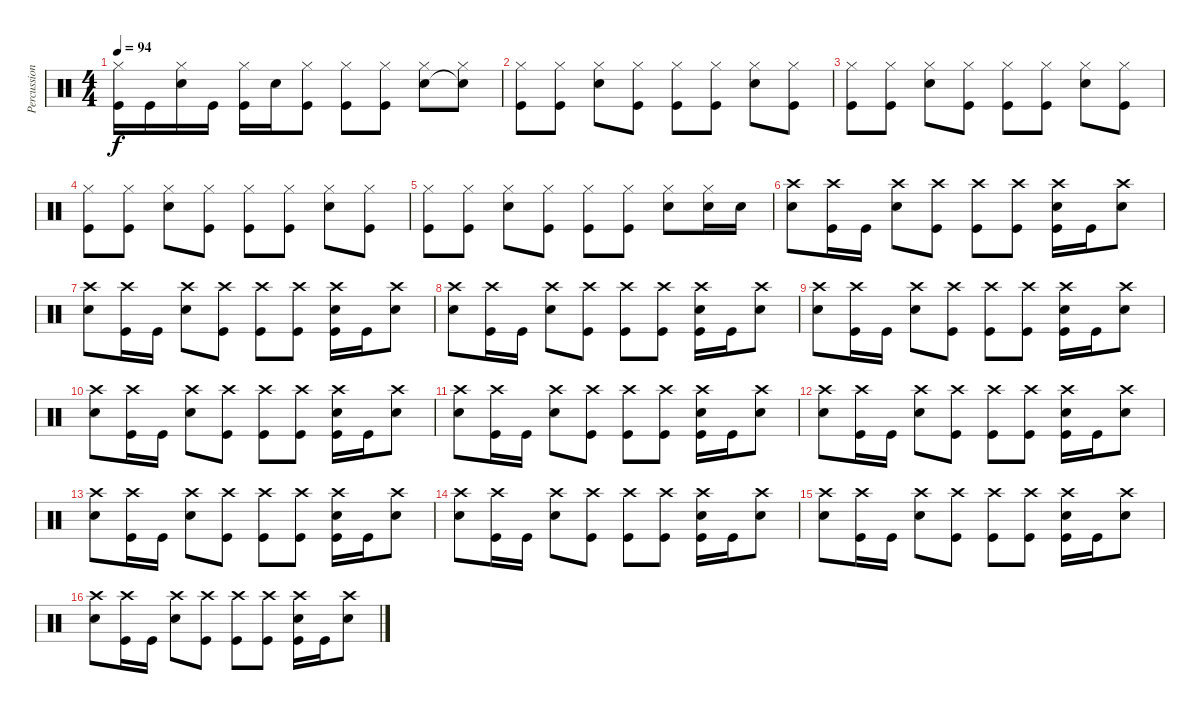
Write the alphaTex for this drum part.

\track ("Percussions" "Percussion") {instrument percussion}
\staff {score}
\articulation defaults
\ts (4 4)
\tempo 94
\clef neutral
\ks c
("Hi-Hat (closed)" "Kick (hit)").16{dy f} "Kick (hit)".16 ("Hi-Hat (closed)" "Electric Snare (hit)").16 "Kick (hit)".16 ("Hi-Hat (closed)" "Kick (hit)").16 "Electric Snare (hit)".16 ("Hi-Hat (closed)" "Kick (hit)").8 ("Hi-Hat (closed)" "Kick (hit)").8 ("Hi-Hat (closed)" "Kick (hit)").8 ("Hi-Hat (closed)" "Electric Snare (hit)").8 ("Hi-Hat (closed)" "Snare (hit)"{t}).8 |
("Hi-Hat (closed)" "Kick (hit)").8 ("Hi-Hat (closed)" "Kick (hit)").8 ("Hi-Hat (closed)" "Electric Snare (hit)").8 ("Hi-Hat (closed)" "Kick (hit)").8 ("Hi-Hat (closed)" "Kick (hit)").8 ("Hi-Hat (closed)" "Kick (hit)").8 ("Hi-Hat (closed)" "Electric Snare (hit)").8 ("Hi-Hat (closed)" "Kick (hit)").8 |
("Hi-Hat (closed)" "Kick (hit)").8 ("Hi-Hat (closed)" "Kick (hit)").8 ("Hi-Hat (closed)" "Electric Snare (hit)").8 ("Hi-Hat (closed)" "Kick (hit)").8 ("Hi-Hat (closed)" "Kick (hit)").8 ("Hi-Hat (closed)" "Kick (hit)").8 ("Hi-Hat (closed)" "Electric Snare (hit)").8 ("Hi-Hat (closed)" "Kick (hit)").8 |
("Hi-Hat (closed)" "Kick (hit)").8 ("Hi-Hat (closed)" "Kick (hit)").8 ("Hi-Hat (closed)" "Electric Snare (hit)").8 ("Hi-Hat (closed)" "Kick (hit)").8 ("Hi-Hat (closed)" "Kick (hit)").8 ("Hi-Hat (closed)" "Kick (hit)").8 ("Hi-Hat (closed)" "Electric Snare (hit)").8 ("Hi-Hat (closed)" "Kick (hit)").8 |
("Hi-Hat (closed)" "Kick (hit)").8 ("Hi-Hat (closed)" "Kick (hit)").8 ("Hi-Hat (closed)" "Electric Snare (hit)").8 ("Hi-Hat (closed)" "Kick (hit)").8 ("Hi-Hat (closed)" "Kick (hit)").8 ("Hi-Hat (closed)" "Kick (hit)").8 ("Hi-Hat (closed)" "Electric Snare (hit)").8 ("Hi-Hat (closed)" "Electric Snare (hit)").16 "Electric Snare (hit)".16 |
("Crash high (hit)" "Electric Snare (hit)").8 ("Crash high (hit)" "Kick (hit)").16 "Kick (hit)".16 ("Crash high (hit)" "Electric Snare (hit)").8 ("Crash high (hit)" "Kick (hit)").8 ("Crash high (hit)" "Kick (hit)").8 ("Crash high (hit)" "Kick (hit)").8 ("Crash high (hit)" "Electric Snare (hit)" "Kick (hit)").16 "Kick (hit)".16 ("Crash high (hit)" "Electric Snare (hit)").8 |
("Crash high (hit)" "Electric Snare (hit)").8 ("Crash high (hit)" "Kick (hit)").16 "Kick (hit)".16 ("Crash high (hit)" "Electric Snare (hit)").8 ("Crash high (hit)" "Kick (hit)").8 ("Crash high (hit)" "Kick (hit)").8 ("Crash high (hit)" "Kick (hit)").8 ("Crash high (hit)" "Electric Snare (hit)" "Kick (hit)").16 "Kick (hit)".16 ("Crash high (hit)" "Electric Snare (hit)").8 |
("Crash high (hit)" "Electric Snare (hit)").8 ("Crash high (hit)" "Kick (hit)").16 "Kick (hit)".16 ("Crash high (hit)" "Electric Snare (hit)").8 ("Crash high (hit)" "Kick (hit)").8 ("Crash high (hit)" "Kick (hit)").8 ("Crash high (hit)" "Kick (hit)").8 ("Crash high (hit)" "Electric Snare (hit)" "Kick (hit)").16 "Kick (hit)".16 ("Crash high (hit)" "Electric Snare (hit)").8 |
("Crash high (hit)" "Electric Snare (hit)").8 ("Crash high (hit)" "Kick (hit)").16 "Kick (hit)".16 ("Crash high (hit)" "Electric Snare (hit)").8 ("Crash high (hit)" "Kick (hit)").8 ("Crash high (hit)" "Kick (hit)").8 ("Crash high (hit)" "Kick (hit)").8 ("Crash high (hit)" "Electric Snare (hit)" "Kick (hit)").16 "Kick (hit)".16 ("Crash high (hit)" "Electric Snare (hit)").8 |
("Crash high (hit)" "Electric Snare (hit)").8 ("Crash high (hit)" "Kick (hit)").16 "Kick (hit)".16 ("Crash high (hit)" "Electric Snare (hit)").8 ("Crash high (hit)" "Kick (hit)").8 ("Crash high (hit)" "Kick (hit)").8 ("Crash high (hit)" "Kick (hit)").8 ("Crash high (hit)" "Electric Snare (hit)" "Kick (hit)").16 "Kick (hit)".16 ("Crash high (hit)" "Electric Snare (hit)").8 |
("Crash high (hit)" "Electric Snare (hit)").8 ("Crash high (hit)" "Kick (hit)").16 "Kick (hit)".16 ("Crash high (hit)" "Electric Snare (hit)").8 ("Crash high (hit)" "Kick (hit)").8 ("Crash high (hit)" "Kick (hit)").8 ("Crash high (hit)" "Kick (hit)").8 ("Crash high (hit)" "Electric Snare (hit)" "Kick (hit)").16 "Kick (hit)".16 ("Crash high (hit)" "Electric Snare (hit)").8 |
("Crash high (hit)" "Electric Snare (hit)").8 ("Crash high (hit)" "Kick (hit)").16 "Kick (hit)".16 ("Crash high (hit)" "Electric Snare (hit)").8 ("Crash high (hit)" "Kick (hit)").8 ("Crash high (hit)" "Kick (hit)").8 ("Crash high (hit)" "Kick (hit)").8 ("Crash high (hit)" "Electric Snare (hit)" "Kick (hit)").16 "Kick (hit)".16 ("Crash high (hit)" "Electric Snare (hit)").8 |
("Crash high (hit)" "Electric Snare (hit)").8 ("Crash high (hit)" "Kick (hit)").16 "Kick (hit)".16 ("Crash high (hit)" "Electric Snare (hit)").8 ("Crash high (hit)" "Kick (hit)").8 ("Crash high (hit)" "Kick (hit)").8 ("Crash high (hit)" "Kick (hit)").8 ("Crash high (hit)" "Electric Snare (hit)" "Kick (hit)").16 "Kick (hit)".16 ("Crash high (hit)" "Electric Snare (hit)").8 |
("Crash high (hit)" "Electric Snare (hit)").8 ("Crash high (hit)" "Kick (hit)").16 "Kick (hit)".16 ("Crash high (hit)" "Electric Snare (hit)").8 ("Crash high (hit)" "Kick (hit)").8 ("Crash high (hit)" "Kick (hit)").8 ("Crash high (hit)" "Kick (hit)").8 ("Crash high (hit)" "Electric Snare (hit)" "Kick (hit)").16 "Kick (hit)".16 ("Crash high (hit)" "Electric Snare (hit)").8 |
("Crash high (hit)" "Electric Snare (hit)").8 ("Crash high (hit)" "Kick (hit)").16 "Kick (hit)".16 ("Crash high (hit)" "Electric Snare (hit)").8 ("Crash high (hit)" "Kick (hit)").8 ("Crash high (hit)" "Kick (hit)").8 ("Crash high (hit)" "Kick (hit)").8 ("Crash high (hit)" "Electric Snare (hit)" "Kick (hit)").16 "Kick (hit)".16 ("Crash high (hit)" "Electric Snare (hit)").8 |
("Crash high (hit)" "Electric Snare (hit)").8 ("Crash high (hit)" "Kick (hit)").16 "Kick (hit)".16 ("Crash high (hit)" "Electric Snare (hit)").8 ("Crash high (hit)" "Kick (hit)").8 ("Crash high (hit)" "Kick (hit)").8 ("Crash high (hit)" "Kick (hit)").8 ("Crash high (hit)" "Electric Snare (hit)" "Kick (hit)").16 "Kick (hit)".16 ("Crash high (hit)" "Electric Snare (hit)").8
